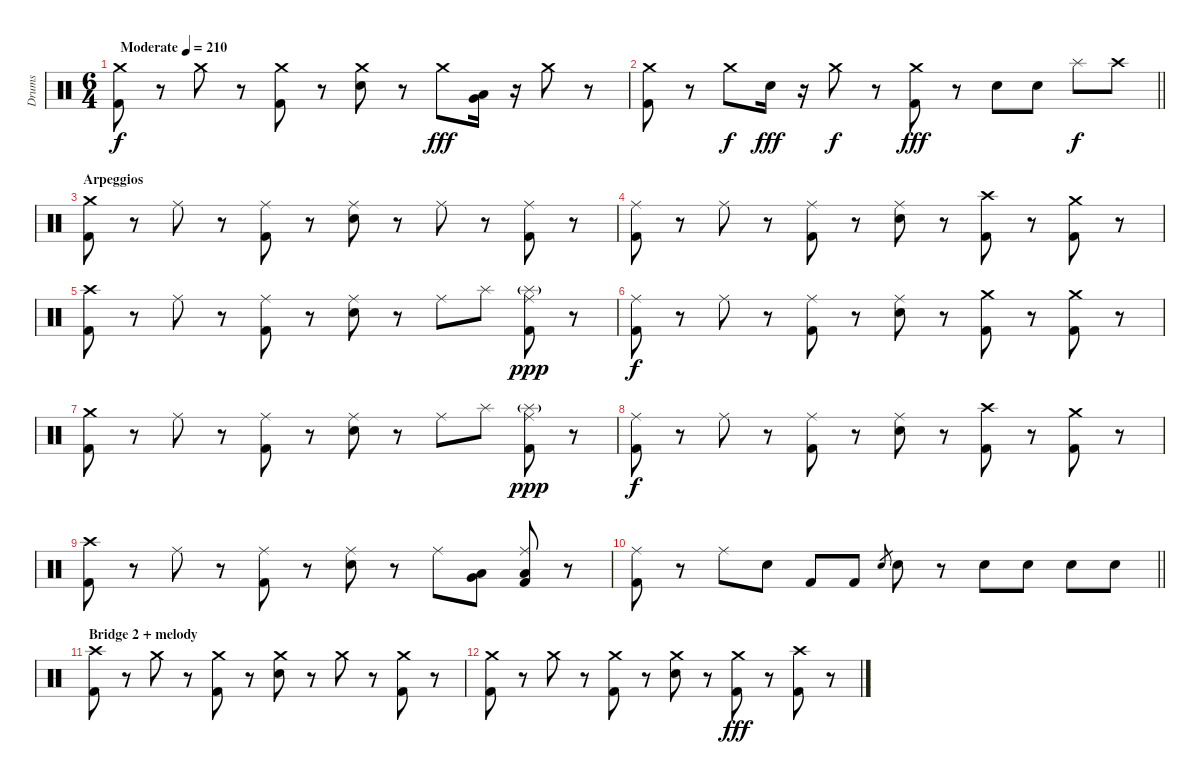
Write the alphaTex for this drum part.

\track ("Drums" "Drums") {instrument percussion}
\staff {score}
\articulation defaults
\ts (6 4)
\tempo (210 "Moderate")
\clef neutral
\ks c
("Crash medium (hit)" "Kick (hit) 2").8{dy f} r.8 "Crash medium (hit)".8 r.8 ("Crash medium (hit)" "Kick (hit) 2").8 r.8 ("Crash medium (hit)" "Electric Snare (hit)").8 r.8 "Crash medium (hit)".8{dy fff} ("Very Low Tom (hit)" "Low Floor Tom (hit)").16 r.16 "Crash medium (hit)".8 r.8 |
\barLineRight lightlight
("Crash medium (hit)" "Kick (hit) 2").8 r.8 "Crash medium (hit)".8{dy f} "Electric Snare (hit)".16{dy fff} r.16 "Crash medium (hit)".8{dy f} r.8 ("Crash medium (hit)" "Kick (hit) 2").8{dy fff} r.8 "Electric Snare (hit)".8 "Electric Snare (hit)".8 "Splash (hit)".8{dy f} "Crash high (hit)".8 |
\section ("" "Arpeggios")
("Crash medium (hit)" "Kick (hit) 2").8 r.8 "Ride (middle)".8 r.8 ("Ride (middle)" "Kick (hit) 2").8 r.8 ("Ride (middle)" "Electric Snare (hit)").8 r.8 "Ride (middle)".8 r.8 ("Ride (middle)" "Kick (hit) 2").8 r.8 |
("Ride (middle)" "Kick (hit) 2").8 r.8 "Ride (middle)".8 r.8 ("Ride (middle)" "Kick (hit) 2").8 r.8 ("Ride (middle)" "Electric Snare (hit)").8 r.8 ("Crash high (hit)" "Kick (hit) 2").8 r.8 ("Crash medium (hit)" "Kick (hit) 2").8 r.8 |
("Crash high (hit)" "Kick (hit) 2").8 r.8 "Ride (middle)".8 r.8 ("Ride (middle)" "Kick (hit) 2").8 r.8 ("Ride (middle)" "Electric Snare (hit)").8 r.8 "Ride (middle)".8 "Splash (hit)".8 ("Splash (hit)"{g} "Ride (middle)" "Kick (hit) 2").8{dy ppp} r.8 |
("Ride (middle)" "Kick (hit) 2").8{dy f} r.8 "Ride (middle)".8 r.8 ("Ride (middle)" "Kick (hit) 2").8 r.8 ("Ride (middle)" "Electric Snare (hit)").8 r.8 ("Crash medium (hit)" "Kick (hit) 2").8 r.8 ("Crash medium (hit)" "Kick (hit) 2").8 r.8 |
("Crash medium (hit)" "Kick (hit) 2").8 r.8 "Ride (middle)".8 r.8 ("Ride (middle)" "Kick (hit) 2").8 r.8 ("Ride (middle)" "Electric Snare (hit)").8 r.8 "Ride (middle)".8 "Splash (hit)".8 ("Splash (hit)"{g} "Ride (middle)" "Kick (hit) 2").8{dy ppp} r.8 |
("Ride (middle)" "Kick (hit) 2").8{dy f} r.8 "Ride (middle)".8 r.8 ("Ride (middle)" "Kick (hit) 2").8 r.8 ("Ride (middle)" "Electric Snare (hit)").8 r.8 ("Crash high (hit)" "Kick (hit) 2").8 r.8 ("Crash medium (hit)" "Kick (hit) 2").8 r.8 |
("Crash high (hit)" "Kick (hit) 2").8 r.8 "Ride (middle)".8 r.8 ("Ride (middle)" "Kick (hit) 2").8 r.8 ("Ride (middle)" "Electric Snare (hit)").8 r.8 "Ride (middle)".8 ("Low Tom (hit)" "Very Low Tom (hit)").8 ("Ride (middle)" "Low Tom (hit)" "Kick (hit) 2").8 r.8 |
\barLineRight lightlight
("Ride (middle)" "Kick (hit) 2").8 r.8 "Ride (middle)".8 "Electric Snare (hit)".8 "Kick (hit) 2".8 "Kick (hit) 2".8 "Electric Snare (hit)".8{gr} "Electric Snare (hit)".8 r.8 "Electric Snare (hit)".8 "Electric Snare (hit)".8 "Electric Snare (hit)".8 "Electric Snare (hit)".8 |
\section ("" "Bridge 2 + melody")
("Crash high (hit)" "Kick (hit) 2").8{volume 0} r.8 "Crash medium (hit)".8 r.8 ("Crash medium (hit)" "Kick (hit) 2").8 r.8 ("Crash medium (hit)" "Electric Snare (hit)").8 r.8 "Crash medium (hit)".8 r.8 ("Crash medium (hit)" "Kick (hit) 2").8 r.8 |
("Crash medium (hit)" "Kick (hit) 2").8 r.8 "Crash medium (hit)".8 r.8 ("Crash medium (hit)" "Kick (hit) 2").8 r.8 ("Crash medium (hit)" "Electric Snare (hit)").8 r.8 ("Crash medium (hit)" "Kick (hit) 2").8{dy fff} r.8 ("Crash high (hit)" "Kick (hit) 2").8 r.8
